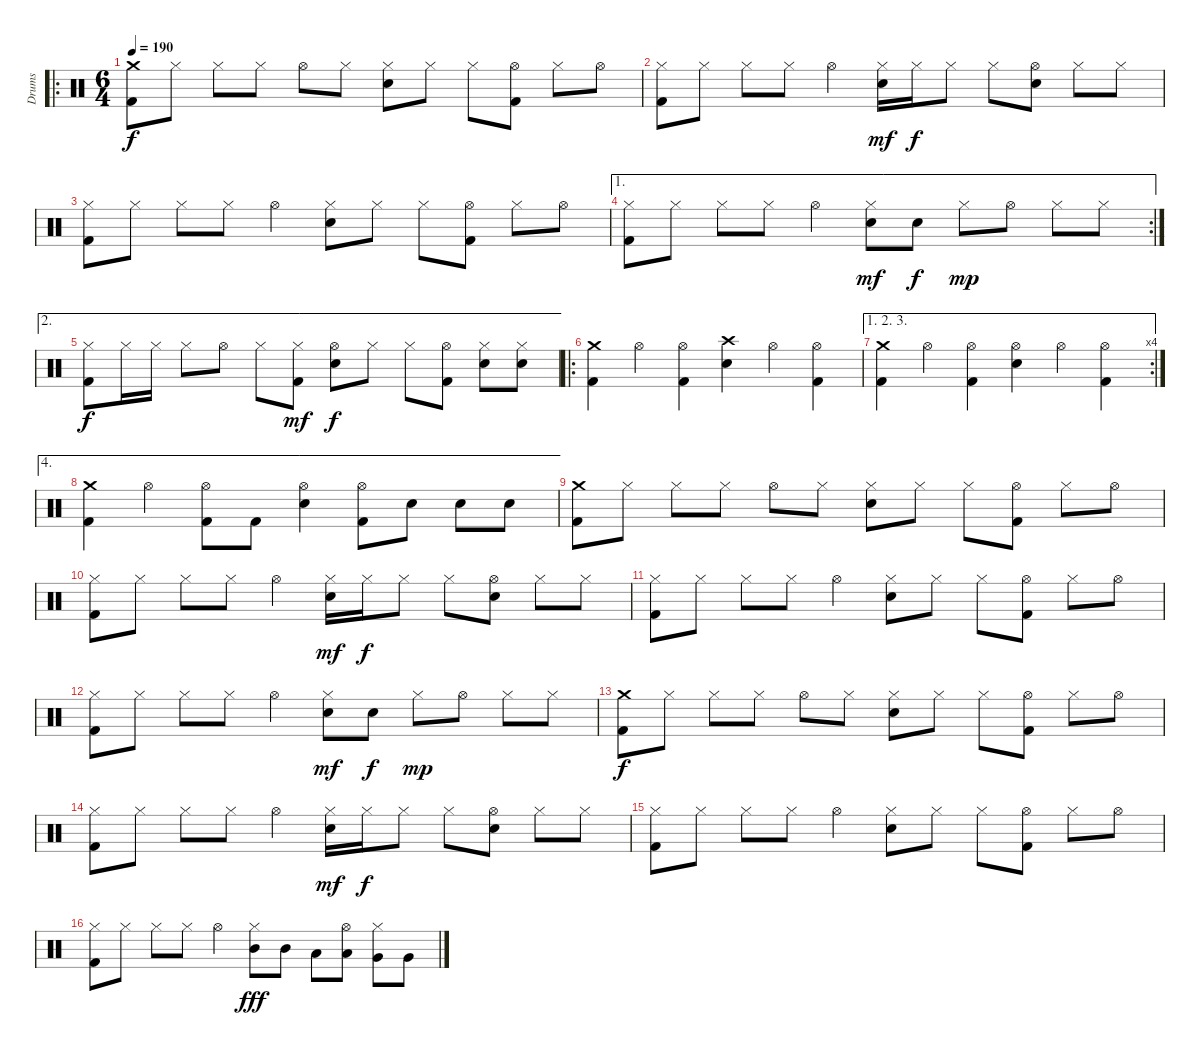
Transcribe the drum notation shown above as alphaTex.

\track ("Drums" "Drums") {instrument percussion}
\staff {score}
\articulation defaults
\ro
\ts (6 4)
\tempo 190
\clef neutral
\ks c
("Crash medium (hit)" "Kick (hit) 2").8{dy f} "Hi-Hat (closed)".8 "Hi-Hat (closed)".8 "Hi-Hat (closed)".8 "Hi-Hat (open)".8 "Hi-Hat (closed)".8 ("Hi-Hat (closed)" "Electric Snare (hit)").8 "Hi-Hat (closed)".8 "Hi-Hat (closed)".8 ("Hi-Hat (open)" "Kick (hit) 2").8 "Hi-Hat (closed)".8 "Hi-Hat (open)".8 |
("Hi-Hat (closed)" "Kick (hit) 2").8 "Hi-Hat (closed)".8 "Hi-Hat (closed)".8 "Hi-Hat (closed)".8 "Hi-Hat (open)".4 ("Hi-Hat (closed)" "Electric Snare (hit)").16{dy mf} "Hi-Hat (closed)".16{dy f} "Hi-Hat (closed)".8 "Hi-Hat (closed)".8 ("Hi-Hat (open)" "Electric Snare (hit)").8 "Hi-Hat (closed)".8 "Hi-Hat (closed)".8 |
("Hi-Hat (closed)" "Kick (hit) 2").8 "Hi-Hat (closed)".8 "Hi-Hat (closed)".8 "Hi-Hat (closed)".8 "Hi-Hat (open)".4 ("Hi-Hat (closed)" "Electric Snare (hit)").8 "Hi-Hat (closed)".8 "Hi-Hat (closed)".8 ("Hi-Hat (open)" "Kick (hit) 2").8 "Hi-Hat (closed)".8 "Hi-Hat (open)".8 |
\ae 1
\rc 2
("Hi-Hat (closed)" "Kick (hit) 2").8 "Hi-Hat (closed)".8 "Hi-Hat (closed)".8 "Hi-Hat (closed)".8 "Hi-Hat (open)".4 ("Hi-Hat (closed)" "Electric Snare (hit)").8{dy mf} "Electric Snare (hit)".8{dy f} "Hi-Hat (closed)".8{dy mp} "Hi-Hat (open)".8 "Hi-Hat (closed)".8 "Hi-Hat (closed)".8 |
\ae 2
("Hi-Hat (closed)" "Kick (hit) 2").8{dy f} "Hi-Hat (closed)".16 "Hi-Hat (closed)".16 "Hi-Hat (closed)".8 "Hi-Hat (open)".8 "Hi-Hat (closed)".8 ("Hi-Hat (closed)" "Kick (hit) 2").8{dy mf} ("Hi-Hat (open)" "Electric Snare (hit)").8{dy f} "Hi-Hat (closed)".8 "Hi-Hat (closed)".8 ("Hi-Hat (open)" "Kick (hit) 2").8 ("Hi-Hat (closed)" "Electric Snare (hit)").8 ("Hi-Hat (closed)" "Electric Snare (hit)").8 |
\ro
("Crash medium (hit)" "Kick (hit) 2").4 "Hi-Hat (open)".4 ("Hi-Hat (open)" "Kick (hit) 2").4 ("Crash high (hit)" "Electric Snare (hit)").4 "Hi-Hat (open)".4 ("Hi-Hat (open)" "Kick (hit) 2").4 |
\ae (1 2 3)
\rc 4
("Crash medium (hit)" "Kick (hit) 2").4 "Hi-Hat (open)".4 ("Hi-Hat (open)" "Kick (hit) 2").4 ("Hi-Hat (open)" "Electric Snare (hit)").4 "Hi-Hat (open)".4 ("Hi-Hat (open)" "Kick (hit) 2").4 |
\ae 4
("Crash medium (hit)" "Kick (hit) 2").4 "Hi-Hat (open)".4 ("Hi-Hat (open)" "Kick (hit) 2").8 "Kick (hit) 2".8 ("Hi-Hat (open)" "Electric Snare (hit)").4 ("Hi-Hat (open)" "Kick (hit) 2").8 "Electric Snare (hit)".8 "Electric Snare (hit)".8 "Electric Snare (hit)".8 |
("Crash medium (hit)" "Kick (hit) 2").8 "Hi-Hat (closed)".8 "Hi-Hat (closed)".8 "Hi-Hat (closed)".8 "Hi-Hat (open)".8 "Hi-Hat (closed)".8 ("Hi-Hat (closed)" "Electric Snare (hit)").8 "Hi-Hat (closed)".8 "Hi-Hat (closed)".8 ("Hi-Hat (open)" "Kick (hit) 2").8 "Hi-Hat (closed)".8 "Hi-Hat (open)".8 |
("Hi-Hat (closed)" "Kick (hit) 2").8 "Hi-Hat (closed)".8 "Hi-Hat (closed)".8 "Hi-Hat (closed)".8 "Hi-Hat (open)".4 ("Hi-Hat (closed)" "Electric Snare (hit)").16{dy mf} "Hi-Hat (closed)".16{dy f} "Hi-Hat (closed)".8 "Hi-Hat (closed)".8 ("Hi-Hat (open)" "Electric Snare (hit)").8 "Hi-Hat (closed)".8 "Hi-Hat (closed)".8 |
("Hi-Hat (closed)" "Kick (hit) 2").8 "Hi-Hat (closed)".8 "Hi-Hat (closed)".8 "Hi-Hat (closed)".8 "Hi-Hat (open)".4 ("Hi-Hat (closed)" "Electric Snare (hit)").8 "Hi-Hat (closed)".8 "Hi-Hat (closed)".8 ("Hi-Hat (open)" "Kick (hit) 2").8 "Hi-Hat (closed)".8 "Hi-Hat (open)".8 |
("Hi-Hat (closed)" "Kick (hit) 2").8 "Hi-Hat (closed)".8 "Hi-Hat (closed)".8 "Hi-Hat (closed)".8 "Hi-Hat (open)".4 ("Hi-Hat (closed)" "Electric Snare (hit)").8{dy mf} "Electric Snare (hit)".8{dy f} "Hi-Hat (closed)".8{dy mp} "Hi-Hat (open)".8 "Hi-Hat (closed)".8 "Hi-Hat (closed)".8 |
("Crash medium (hit)" "Kick (hit) 2").8{dy f} "Hi-Hat (closed)".8 "Hi-Hat (closed)".8 "Hi-Hat (closed)".8 "Hi-Hat (open)".8 "Hi-Hat (closed)".8 ("Hi-Hat (closed)" "Electric Snare (hit)").8 "Hi-Hat (closed)".8 "Hi-Hat (closed)".8 ("Hi-Hat (open)" "Kick (hit) 2").8 "Hi-Hat (closed)".8 "Hi-Hat (open)".8 |
("Hi-Hat (closed)" "Kick (hit) 2").8 "Hi-Hat (closed)".8 "Hi-Hat (closed)".8 "Hi-Hat (closed)".8 "Hi-Hat (open)".4 ("Hi-Hat (closed)" "Electric Snare (hit)").16{dy mf} "Hi-Hat (closed)".16{dy f} "Hi-Hat (closed)".8 "Hi-Hat (closed)".8 ("Hi-Hat (open)" "Electric Snare (hit)").8 "Hi-Hat (closed)".8 "Hi-Hat (closed)".8 |
("Hi-Hat (closed)" "Kick (hit) 2").8 "Hi-Hat (closed)".8 "Hi-Hat (closed)".8 "Hi-Hat (closed)".8 "Hi-Hat (open)".4 ("Hi-Hat (closed)" "Electric Snare (hit)").8 "Hi-Hat (closed)".8 "Hi-Hat (closed)".8 ("Hi-Hat (open)" "Kick (hit) 2").8 "Hi-Hat (closed)".8 "Hi-Hat (open)".8 |
("Hi-Hat (closed)" "Kick (hit) 2").8 "Hi-Hat (closed)".8 "Hi-Hat (closed)".8 "Hi-Hat (closed)".8 "Hi-Hat (open)".4 ("Hi-Hat (closed)" "Mid Tom (hit)").8{dy fff} "Mid Tom (hit)".8 "Low Tom (hit)".8 ("Hi-Hat (open)" "Low Tom (hit)").8 ("Hi-Hat (closed)" "Very Low Tom (hit)").8 "Very Low Tom (hit)".8
